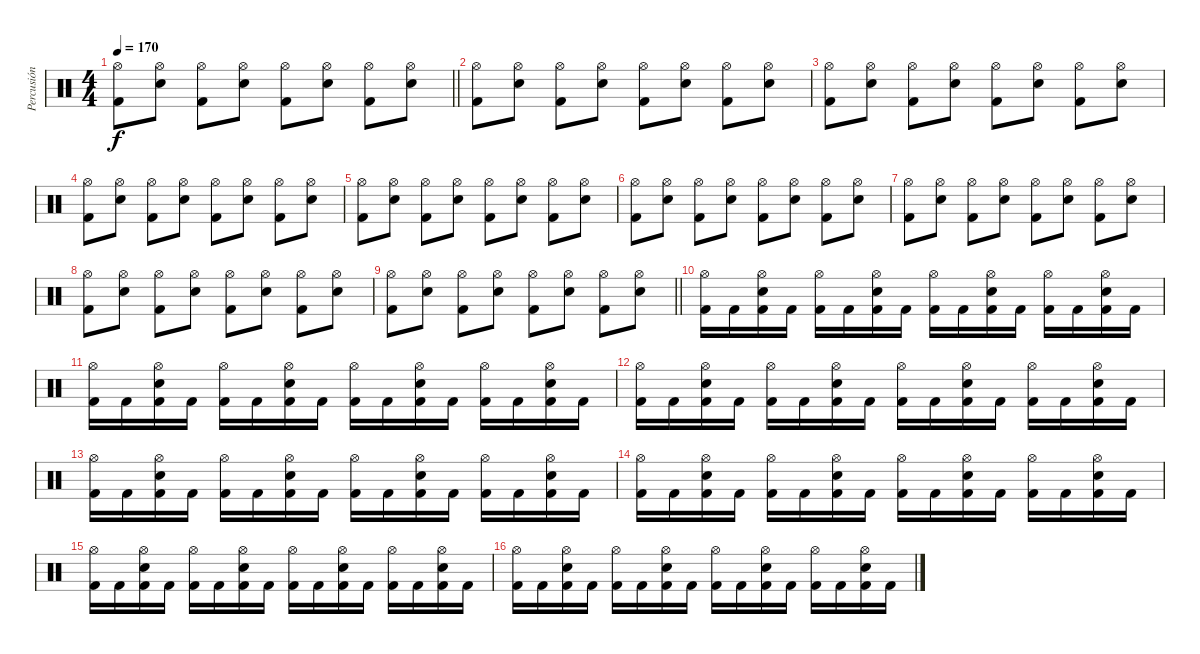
\track ("Percusión" "Percusión") {instrument percussion}
\staff {score}
\articulation defaults
\ts (4 4)
\tempo 170
\clef neutral
\barLineRight lightlight
\ks c
("Hi-Hat (open)" "Kick (hit) 2").8{dy f} ("Hi-Hat (open)" "Snare (hit) 2").8 ("Hi-Hat (open)" "Kick (hit) 2").8 ("Hi-Hat (open)" "Snare (hit) 2").8 ("Hi-Hat (open)" "Kick (hit) 2").8 ("Hi-Hat (open)" "Snare (hit) 2").8 ("Hi-Hat (open)" "Kick (hit) 2").8 ("Hi-Hat (open)" "Snare (hit) 2").8 |
("Hi-Hat (open)" "Kick (hit) 2").8 ("Hi-Hat (open)" "Snare (hit) 2").8 ("Hi-Hat (open)" "Kick (hit) 2").8 ("Hi-Hat (open)" "Snare (hit) 2").8 ("Hi-Hat (open)" "Kick (hit) 2").8 ("Hi-Hat (open)" "Snare (hit) 2").8 ("Hi-Hat (open)" "Kick (hit) 2").8 ("Hi-Hat (open)" "Snare (hit) 2").8 |
("Hi-Hat (open)" "Kick (hit) 2").8 ("Hi-Hat (open)" "Snare (hit) 2").8 ("Hi-Hat (open)" "Kick (hit) 2").8 ("Hi-Hat (open)" "Snare (hit) 2").8 ("Hi-Hat (open)" "Kick (hit) 2").8 ("Hi-Hat (open)" "Snare (hit) 2").8 ("Hi-Hat (open)" "Kick (hit) 2").8 ("Hi-Hat (open)" "Snare (hit) 2").8 |
("Hi-Hat (open)" "Kick (hit) 2").8 ("Hi-Hat (open)" "Snare (hit) 2").8 ("Hi-Hat (open)" "Kick (hit) 2").8 ("Hi-Hat (open)" "Snare (hit) 2").8 ("Hi-Hat (open)" "Kick (hit) 2").8 ("Hi-Hat (open)" "Snare (hit) 2").8 ("Hi-Hat (open)" "Kick (hit) 2").8 ("Hi-Hat (open)" "Snare (hit) 2").8 |
("Hi-Hat (open)" "Kick (hit) 2").8 ("Hi-Hat (open)" "Snare (hit) 2").8 ("Hi-Hat (open)" "Kick (hit) 2").8 ("Hi-Hat (open)" "Snare (hit) 2").8 ("Hi-Hat (open)" "Kick (hit) 2").8 ("Hi-Hat (open)" "Snare (hit) 2").8 ("Hi-Hat (open)" "Kick (hit) 2").8 ("Hi-Hat (open)" "Snare (hit) 2").8 |
("Hi-Hat (open)" "Kick (hit) 2").8 ("Hi-Hat (open)" "Snare (hit) 2").8 ("Hi-Hat (open)" "Kick (hit) 2").8 ("Hi-Hat (open)" "Snare (hit) 2").8 ("Hi-Hat (open)" "Kick (hit) 2").8 ("Hi-Hat (open)" "Snare (hit) 2").8 ("Hi-Hat (open)" "Kick (hit) 2").8 ("Hi-Hat (open)" "Snare (hit) 2").8 |
("Hi-Hat (open)" "Kick (hit) 2").8 ("Hi-Hat (open)" "Snare (hit) 2").8 ("Hi-Hat (open)" "Kick (hit) 2").8 ("Hi-Hat (open)" "Snare (hit) 2").8 ("Hi-Hat (open)" "Kick (hit) 2").8 ("Hi-Hat (open)" "Snare (hit) 2").8 ("Hi-Hat (open)" "Kick (hit) 2").8 ("Hi-Hat (open)" "Snare (hit) 2").8 |
("Hi-Hat (open)" "Kick (hit) 2").8 ("Hi-Hat (open)" "Snare (hit) 2").8 ("Hi-Hat (open)" "Kick (hit) 2").8 ("Hi-Hat (open)" "Snare (hit) 2").8 ("Hi-Hat (open)" "Kick (hit) 2").8 ("Hi-Hat (open)" "Snare (hit) 2").8 ("Hi-Hat (open)" "Kick (hit) 2").8 ("Hi-Hat (open)" "Snare (hit) 2").8 |
\barLineRight lightlight
("Hi-Hat (open)" "Kick (hit) 2").8 ("Hi-Hat (open)" "Snare (hit) 2").8 ("Hi-Hat (open)" "Kick (hit) 2").8 ("Hi-Hat (open)" "Snare (hit) 2").8 ("Hi-Hat (open)" "Kick (hit) 2").8 ("Hi-Hat (open)" "Snare (hit) 2").8 ("Hi-Hat (open)" "Kick (hit) 2").8 ("Hi-Hat (open)" "Snare (hit) 2").8 |
("Hi-Hat (open)" "Kick (hit) 2").16 "Kick (hit) 2".16 ("Hi-Hat (open)" "Snare (hit) 2" "Kick (hit) 2").16 "Kick (hit) 2".16 ("Hi-Hat (open)" "Kick (hit) 2").16 "Kick (hit) 2".16 ("Hi-Hat (open)" "Snare (hit) 2" "Kick (hit) 2").16 "Kick (hit) 2".16 ("Hi-Hat (open)" "Kick (hit) 2").16 "Kick (hit) 2".16 ("Hi-Hat (open)" "Snare (hit) 2" "Kick (hit) 2").16 "Kick (hit) 2".16 ("Hi-Hat (open)" "Kick (hit) 2").16 "Kick (hit) 2".16 ("Hi-Hat (open)" "Snare (hit) 2" "Kick (hit) 2").16 "Kick (hit) 2".16 |
("Hi-Hat (open)" "Kick (hit) 2").16 "Kick (hit) 2".16 ("Hi-Hat (open)" "Snare (hit) 2" "Kick (hit) 2").16 "Kick (hit) 2".16 ("Hi-Hat (open)" "Kick (hit) 2").16 "Kick (hit) 2".16 ("Hi-Hat (open)" "Snare (hit) 2" "Kick (hit) 2").16 "Kick (hit) 2".16 ("Hi-Hat (open)" "Kick (hit) 2").16 "Kick (hit) 2".16 ("Hi-Hat (open)" "Snare (hit) 2" "Kick (hit) 2").16 "Kick (hit) 2".16 ("Hi-Hat (open)" "Kick (hit) 2").16 "Kick (hit) 2".16 ("Hi-Hat (open)" "Snare (hit) 2" "Kick (hit) 2").16 "Kick (hit) 2".16 |
("Hi-Hat (open)" "Kick (hit) 2").16 "Kick (hit) 2".16 ("Hi-Hat (open)" "Snare (hit) 2" "Kick (hit) 2").16 "Kick (hit) 2".16 ("Hi-Hat (open)" "Kick (hit) 2").16 "Kick (hit) 2".16 ("Hi-Hat (open)" "Snare (hit) 2" "Kick (hit) 2").16 "Kick (hit) 2".16 ("Hi-Hat (open)" "Kick (hit) 2").16 "Kick (hit) 2".16 ("Hi-Hat (open)" "Snare (hit) 2" "Kick (hit) 2").16 "Kick (hit) 2".16 ("Hi-Hat (open)" "Kick (hit) 2").16 "Kick (hit) 2".16 ("Hi-Hat (open)" "Snare (hit) 2" "Kick (hit) 2").16 "Kick (hit) 2".16 |
("Hi-Hat (open)" "Kick (hit) 2").16 "Kick (hit) 2".16 ("Hi-Hat (open)" "Snare (hit) 2" "Kick (hit) 2").16 "Kick (hit) 2".16 ("Hi-Hat (open)" "Kick (hit) 2").16 "Kick (hit) 2".16 ("Hi-Hat (open)" "Snare (hit) 2" "Kick (hit) 2").16 "Kick (hit) 2".16 ("Hi-Hat (open)" "Kick (hit) 2").16 "Kick (hit) 2".16 ("Hi-Hat (open)" "Snare (hit) 2" "Kick (hit) 2").16 "Kick (hit) 2".16 ("Hi-Hat (open)" "Kick (hit) 2").16 "Kick (hit) 2".16 ("Hi-Hat (open)" "Snare (hit) 2" "Kick (hit) 2").16 "Kick (hit) 2".16 |
("Hi-Hat (open)" "Kick (hit) 2").16 "Kick (hit) 2".16 ("Hi-Hat (open)" "Snare (hit) 2" "Kick (hit) 2").16 "Kick (hit) 2".16 ("Hi-Hat (open)" "Kick (hit) 2").16 "Kick (hit) 2".16 ("Hi-Hat (open)" "Snare (hit) 2" "Kick (hit) 2").16 "Kick (hit) 2".16 ("Hi-Hat (open)" "Kick (hit) 2").16 "Kick (hit) 2".16 ("Hi-Hat (open)" "Snare (hit) 2" "Kick (hit) 2").16 "Kick (hit) 2".16 ("Hi-Hat (open)" "Kick (hit) 2").16 "Kick (hit) 2".16 ("Hi-Hat (open)" "Snare (hit) 2" "Kick (hit) 2").16 "Kick (hit) 2".16 |
("Hi-Hat (open)" "Kick (hit) 2").16 "Kick (hit) 2".16 ("Hi-Hat (open)" "Snare (hit) 2" "Kick (hit) 2").16 "Kick (hit) 2".16 ("Hi-Hat (open)" "Kick (hit) 2").16 "Kick (hit) 2".16 ("Hi-Hat (open)" "Snare (hit) 2" "Kick (hit) 2").16 "Kick (hit) 2".16 ("Hi-Hat (open)" "Kick (hit) 2").16 "Kick (hit) 2".16 ("Hi-Hat (open)" "Snare (hit) 2" "Kick (hit) 2").16 "Kick (hit) 2".16 ("Hi-Hat (open)" "Kick (hit) 2").16 "Kick (hit) 2".16 ("Hi-Hat (open)" "Snare (hit) 2" "Kick (hit) 2").16 "Kick (hit) 2".16 |
("Hi-Hat (open)" "Kick (hit) 2").16 "Kick (hit) 2".16 ("Hi-Hat (open)" "Snare (hit) 2" "Kick (hit) 2").16 "Kick (hit) 2".16 ("Hi-Hat (open)" "Kick (hit) 2").16 "Kick (hit) 2".16 ("Hi-Hat (open)" "Snare (hit) 2" "Kick (hit) 2").16 "Kick (hit) 2".16 ("Hi-Hat (open)" "Kick (hit) 2").16 "Kick (hit) 2".16 ("Hi-Hat (open)" "Snare (hit) 2" "Kick (hit) 2").16 "Kick (hit) 2".16 ("Hi-Hat (open)" "Kick (hit) 2").16 "Kick (hit) 2".16 ("Hi-Hat (open)" "Snare (hit) 2" "Kick (hit) 2").16 "Kick (hit) 2".16
